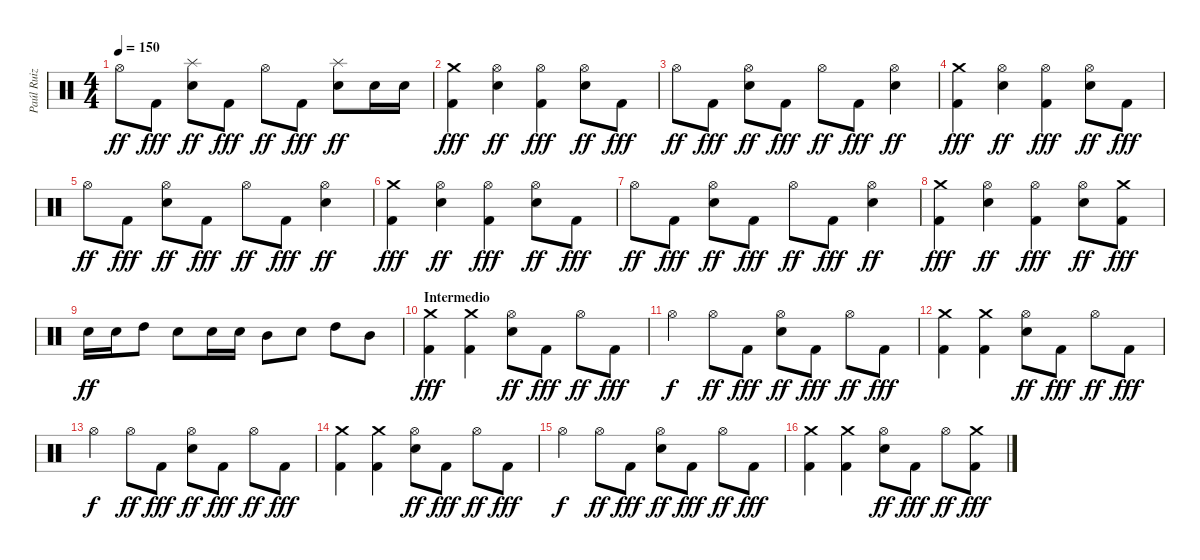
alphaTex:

\track ("Paúl Ruiz" "Paúl Ruiz") {instrument percussion}
\staff {score}
\articulation defaults
\ts (4 4)
\tempo 150
\clef neutral
\ks c "Hi-Hat (open)".8{dy ff} "Kick (hit) 2".8{dy fff}
("Splash (hit)" "Snare (hit) 2").8{dy ff} "Kick (hit) 2".8{dy fff} "Hi-Hat (open)".8{dy ff} "Kick (hit) 2".8{dy fff} ("Splash (hit)" "Snare (hit) 2").8{dy ff} "Snare (hit) 2".16 "Snare (hit) 2".16 |
("Crash medium (hit)" "Kick (hit) 2").4{dy fff} ("Hi-Hat (open)" "Snare (hit) 2").4{dy ff} ("Hi-Hat (open)" "Kick (hit) 2").4{dy fff} ("Hi-Hat (open)" "Snare (hit) 2").8{dy ff} "Kick (hit) 2".8{dy fff} |
"Hi-Hat (open)".8{dy ff} "Kick (hit) 2".8{dy fff} ("Hi-Hat (open)" "Snare (hit) 2").8{dy ff} "Kick (hit) 2".8{dy fff} "Hi-Hat (open)".8{dy ff} "Kick (hit) 2".8{dy fff} ("Hi-Hat (open)" "Snare (hit) 2").4{dy ff} |
("Crash medium (hit)" "Kick (hit) 2").4{dy fff} ("Hi-Hat (open)" "Snare (hit) 2").4{dy ff} ("Hi-Hat (open)" "Kick (hit) 2").4{dy fff} ("Hi-Hat (open)" "Snare (hit) 2").8{dy ff} "Kick (hit) 2".8{dy fff} |
"Hi-Hat (open)".8{dy ff} "Kick (hit) 2".8{dy fff} ("Hi-Hat (open)" "Snare (hit) 2").8{dy ff} "Kick (hit) 2".8{dy fff} "Hi-Hat (open)".8{dy ff} "Kick (hit) 2".8{dy fff} ("Hi-Hat (open)" "Snare (hit) 2").4{dy ff} |
("Crash medium (hit)" "Kick (hit) 2").4{dy fff} ("Hi-Hat (open)" "Snare (hit) 2").4{dy ff} ("Hi-Hat (open)" "Kick (hit) 2").4{dy fff} ("Hi-Hat (open)" "Snare (hit) 2").8{dy ff} "Kick (hit) 2".8{dy fff} |
"Hi-Hat (open)".8{dy ff} "Kick (hit) 2".8{dy fff} ("Hi-Hat (open)" "Snare (hit) 2").8{dy ff} "Kick (hit) 2".8{dy fff} "Hi-Hat (open)".8{dy ff} "Kick (hit) 2".8{dy fff} ("Hi-Hat (open)" "Snare (hit) 2").4{dy ff} |
("Crash medium (hit)" "Kick (hit) 2").4{dy fff} ("Hi-Hat (open)" "Snare (hit) 2").4{dy ff} ("Hi-Hat (open)" "Kick (hit) 2").4{dy fff} ("Hi-Hat (open)" "Snare (hit) 2").8{dy ff} ("Crash medium (hit)" "Kick (hit) 2").8{dy fff} |
"Snare (hit) 2".16{dy ff} "Snare (hit) 2".16 "High Tom (hit)".8 "Snare (hit) 2".8 "Snare (hit) 2".16 "Snare (hit) 2".16 "Mid Tom (hit)".8 "Snare (hit) 2".8 "High Tom (hit)".8 "Mid Tom (hit)".8 |
\section ("" "Intermedio")
("Crash medium (hit)" "Kick (hit) 2").4{dy fff} ("Crash medium (hit)" "Kick (hit) 2").4 ("Hi-Hat (open)" "Snare (hit) 2").8{dy ff} "Kick (hit) 2".8{dy fff} "Hi-Hat (open)".8{dy ff} "Kick (hit) 2".8{dy fff} |
"Hi-Hat (open)".4{dy f} "Hi-Hat (open)".8{dy ff} "Kick (hit) 2".8{dy fff} ("Hi-Hat (open)" "Snare (hit) 2").8{dy ff} "Kick (hit) 2".8{dy fff} "Hi-Hat (open)".8{dy ff} "Kick (hit) 2".8{dy fff} |
("Crash medium (hit)" "Kick (hit) 2").4 ("Crash medium (hit)" "Kick (hit) 2").4 ("Hi-Hat (open)" "Snare (hit) 2").8{dy ff} "Kick (hit) 2".8{dy fff} "Hi-Hat (open)".8{dy ff} "Kick (hit) 2".8{dy fff} |
"Hi-Hat (open)".4{dy f} "Hi-Hat (open)".8{dy ff} "Kick (hit) 2".8{dy fff} ("Hi-Hat (open)" "Snare (hit) 2").8{dy ff} "Kick (hit) 2".8{dy fff} "Hi-Hat (open)".8{dy ff} "Kick (hit) 2".8{dy fff} |
("Crash medium (hit)" "Kick (hit) 2").4 ("Crash medium (hit)" "Kick (hit) 2").4 ("Hi-Hat (open)" "Snare (hit) 2").8{dy ff} "Kick (hit) 2".8{dy fff} "Hi-Hat (open)".8{dy ff} "Kick (hit) 2".8{dy fff} |
"Hi-Hat (open)".4{dy f} "Hi-Hat (open)".8{dy ff} "Kick (hit) 2".8{dy fff} ("Hi-Hat (open)" "Snare (hit) 2").8{dy ff} "Kick (hit) 2".8{dy fff} "Hi-Hat (open)".8{dy ff} "Kick (hit) 2".8{dy fff} |
("Crash medium (hit)" "Kick (hit) 2").4 ("Crash medium (hit)" "Kick (hit) 2").4 ("Hi-Hat (open)" "Snare (hit) 2").8{dy ff} "Kick (hit) 2".8{dy fff} "Hi-Hat (open)".8{dy ff} ("Crash medium (hit)" "Kick (hit) 2").8{dy fff}
